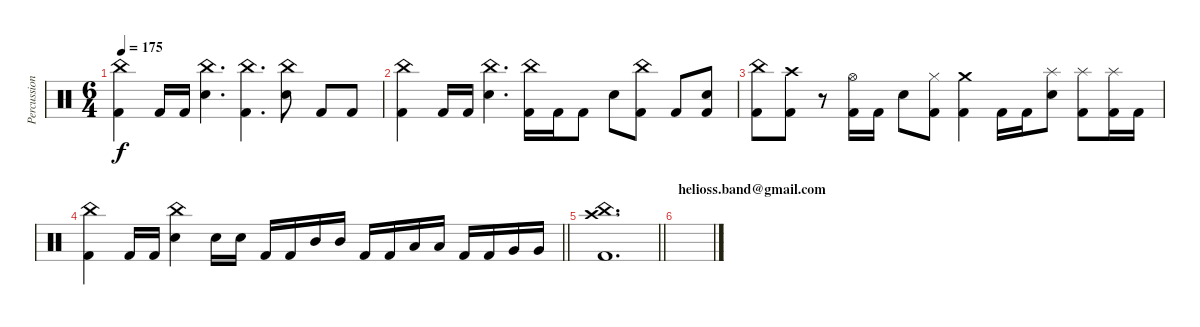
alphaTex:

\track ("Percussions" "Percussion") {instrument percussion}
\staff {score}
\articulation defaults
\ts (6 4)
\tempo 175
\clef neutral
\ks c
("China (hit)" "Kick (hit) 2").4{dy f} "Kick (hit) 2".16 "Kick (hit) 2".16 ("China (hit)" "Electric Snare (hit)").4{d} ("China (hit)" "Kick (hit) 2").4{d} ("China (hit)" "Electric Snare (hit)").8 "Kick (hit) 2".8 "Kick (hit) 2".8 |
("China (hit)" "Kick (hit) 2").4 "Kick (hit) 2".16 "Kick (hit) 2".16 ("China (hit)" "Electric Snare (hit)").4{d} ("China (hit)" "Kick (hit) 2").16 "Kick (hit) 2".16 "Kick (hit) 2".8 "Electric Snare (hit)".8 ("China (hit)" "Kick (hit) 2").8 "Kick (hit) 2".8 ("Electric Snare (hit)" "Kick (hit) 2").8 |
("China (hit)" "Kick (hit) 2").8 ("Crash high (hit)" "Kick (hit) 2").8 r.8 ("Hi-Hat (open)" "Kick (hit) 2").16 "Kick (hit) 2".16 "Electric Snare (hit)".8 ("Hi-Hat (closed)" "Kick (hit) 2").8 ("Crash medium (hit)" "Kick (hit) 2").4 "Kick (hit) 2".16 "Kick (hit) 2".16 ("Splash (hit)" "Electric Snare (hit)").8 ("Splash (hit)" "Kick (hit) 2").8 ("Splash (hit)" "Kick (hit) 2").16 "Kick (hit) 2".16 |
\barLineRight lightlight
("China (hit)" "Kick (hit) 2").4 "Kick (hit) 2".16 "Kick (hit) 2".16 ("China (hit)" "Electric Snare (hit)").4 "Electric Snare (hit)".16 "Electric Snare (hit)".16 "Kick (hit) 2".16 "Kick (hit) 2".16 "Mid Tom (hit)".16 "Mid Tom (hit)".16 "Kick (hit) 2".16 "Kick (hit) 2".16 "Low Tom (hit)".16 "Low Tom (hit)".16 "Kick (hit) 2".16 "Kick (hit) 2".16 "Very Low Tom (hit)".16 "Very Low Tom (hit)".16 |
\barLineRight lightlight
("Crash high (hit)" "China (hit)" "Kick (hit) 2").1{d} |
\section ("" "helioss.band@gmail.com")
